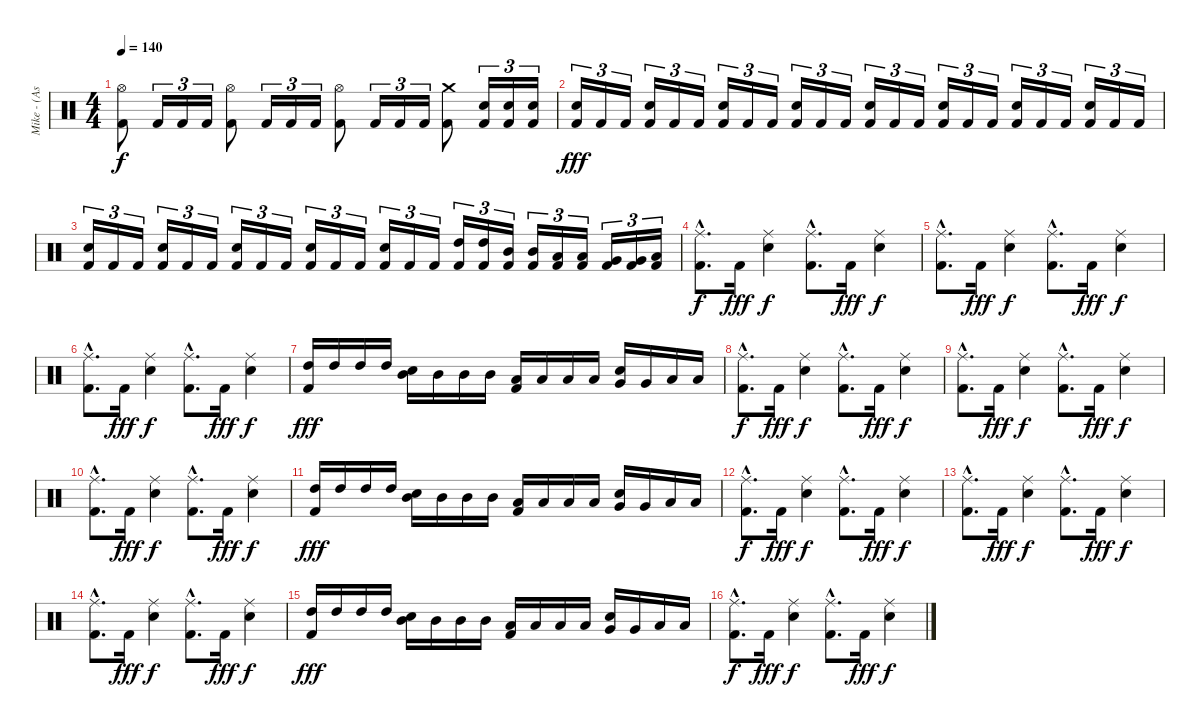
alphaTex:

\track ("Mike - (Assault and Battery)" "Mike - (As") {instrument percussion}
\staff {score}
\articulation defaults
\ts (4 4)
\tempo 140
\clef neutral
\ks c
("Hi-Hat (open)" "Kick (hit) 2").8{dy f} "Kick (hit) 2".16{tu (3 2)} "Kick (hit) 2".16{tu (3 2)} "Kick (hit) 2".16{tu (3 2)} ("Hi-Hat (open)" "Kick (hit) 2").8 "Kick (hit) 2".16{tu (3 2)} "Kick (hit) 2".16{tu (3 2)} "Kick (hit) 2".16{tu (3 2)} ("Hi-Hat (open)" "Kick (hit) 2").8 "Kick (hit) 2".16{tu (3 2)} "Kick (hit) 2".16{tu (3 2)} "Kick (hit) 2".16{tu (3 2)} ("Crash medium (hit)" "Kick (hit) 2").8 ("Electric Snare (hit)" "Kick (hit) 2").16{tu (3 2)} ("Electric Snare (hit)" "Kick (hit) 2").16{tu (3 2)} ("Electric Snare (hit)" "Kick (hit) 2").16{tu (3 2)} |
("Electric Snare (hit)" "Kick (hit) 2").16{tu (3 2) dy fff} "Kick (hit) 2".16{tu (3 2)} "Kick (hit) 2".16{tu (3 2)} ("Electric Snare (hit)" "Kick (hit) 2").16{tu (3 2)} "Kick (hit) 2".16{tu (3 2)} "Kick (hit) 2".16{tu (3 2)} ("Electric Snare (hit)" "Kick (hit) 2").16{tu (3 2)} "Kick (hit) 2".16{tu (3 2)} "Kick (hit) 2".16{tu (3 2)} ("Electric Snare (hit)" "Kick (hit) 2").16{tu (3 2)} "Kick (hit) 2".16{tu (3 2)} "Kick (hit) 2".16{tu (3 2)} ("Electric Snare (hit)" "Kick (hit) 2").16{tu (3 2)} "Kick (hit) 2".16{tu (3 2)} "Kick (hit) 2".16{tu (3 2)} ("Electric Snare (hit)" "Kick (hit) 2").16{tu (3 2)} "Kick (hit) 2".16{tu (3 2)} "Kick (hit) 2".16{tu (3 2)} ("Electric Snare (hit)" "Kick (hit) 2").16{tu (3 2)} "Kick (hit) 2".16{tu (3 2)} "Kick (hit) 2".16{tu (3 2)} ("Electric Snare (hit)" "Kick (hit) 2").16{tu (3 2)} "Kick (hit) 2".16{tu (3 2)} "Kick (hit) 2".16{tu (3 2)} |
("Electric Snare (hit)" "Kick (hit) 2").16{tu (3 2)} "Kick (hit) 2".16{tu (3 2)} "Kick (hit) 2".16{tu (3 2)} ("Electric Snare (hit)" "Kick (hit) 2").16{tu (3 2)} "Kick (hit) 2".16{tu (3 2)} "Kick (hit) 2".16{tu (3 2)} ("Electric Snare (hit)" "Kick (hit) 2").16{tu (3 2)} "Kick (hit) 2".16{tu (3 2)} "Kick (hit) 2".16{tu (3 2)} ("Electric Snare (hit)" "Kick (hit) 2").16{tu (3 2)} "Kick (hit) 2".16{tu (3 2)} "Kick (hit) 2".16{tu (3 2)} ("Electric Snare (hit)" "Kick (hit) 2").16{tu (3 2)} "Kick (hit) 2".16{tu (3 2)} "Kick (hit) 2".16{tu (3 2)} ("High Tom (hit)" "Kick (hit) 2").16{tu (3 2)} ("High Tom (hit)" "Kick (hit) 2").16{tu (3 2)} ("Mid Tom (hit)" "Kick (hit) 2").16{tu (3 2)} ("Mid Tom (hit)" "Kick (hit) 2").16{tu (3 2)} ("Low Tom (hit)" "Kick (hit) 2").16{tu (3 2)} ("Low Tom (hit)" "Kick (hit) 2").16{tu (3 2)} ("Very Low Tom (hit)" "Kick (hit) 2").16{tu (3 2)} ("Very Low Tom (hit)" "Kick (hit) 2").16{tu (3 2)} ("Low Floor Tom (hit)" "Kick (hit) 2").16{tu (3 2)} |
("Ride (middle)"{hac} "Kick (hit) 2"{hac}).8{d dy f} "Kick (hit) 2".16{dy fff} ("Ride (middle)" "Snare (hit) 2").4{dy f} ("Ride (middle)"{hac} "Kick (hit) 2"{hac}).8{d} "Kick (hit) 2".16{dy fff} ("Ride (middle)" "Snare (hit) 2").4{dy f} |
("Ride (middle)"{hac} "Kick (hit) 2"{hac}).8{d} "Kick (hit) 2".16{dy fff} ("Ride (middle)" "Snare (hit) 2").4{dy f} ("Ride (middle)"{hac} "Kick (hit) 2"{hac}).8{d} "Kick (hit) 2".16{dy fff} ("Ride (middle)" "Snare (hit) 2").4{dy f} |
("Ride (middle)"{hac} "Kick (hit) 2"{hac}).8{d} "Kick (hit) 2".16{dy fff} ("Ride (middle)" "Snare (hit) 2").4{dy f} ("Ride (middle)"{hac} "Kick (hit) 2"{hac}).8{d} "Kick (hit) 2".16{dy fff} ("Ride (middle)" "Snare (hit) 2").4{dy f} |
("High Tom (hit)" "Kick (hit) 2").16{dy fff} "High Tom (hit)".16 "High Tom (hit)".16 "High Tom (hit)".16 ("Mid Tom (hit)" "Snare (hit) 2").16 "Mid Tom (hit)".16 "Mid Tom (hit)".16 "Mid Tom (hit)".16 ("Low Tom (hit)" "Kick (hit) 2").16 "Low Tom (hit)".16 "Low Tom (hit)".16 "Low Tom (hit)".16 ("Very Low Tom (hit)" "Snare (hit) 2").16 "Very Low Tom (hit)".16 "Low Floor Tom (hit)".16 "Low Floor Tom (hit)".16 |
("Ride (middle)"{hac} "Kick (hit) 2"{hac}).8{d dy f} "Kick (hit) 2".16{dy fff} ("Ride (middle)" "Snare (hit) 2").4{dy f} ("Ride (middle)"{hac} "Kick (hit) 2"{hac}).8{d} "Kick (hit) 2".16{dy fff} ("Ride (middle)" "Snare (hit) 2").4{dy f} |
("Ride (middle)"{hac} "Kick (hit) 2"{hac}).8{d} "Kick (hit) 2".16{dy fff} ("Ride (middle)" "Snare (hit) 2").4{dy f} ("Ride (middle)"{hac} "Kick (hit) 2"{hac}).8{d} "Kick (hit) 2".16{dy fff} ("Ride (middle)" "Snare (hit) 2").4{dy f} |
("Ride (middle)"{hac} "Kick (hit) 2"{hac}).8{d} "Kick (hit) 2".16{dy fff} ("Ride (middle)" "Snare (hit) 2").4{dy f} ("Ride (middle)"{hac} "Kick (hit) 2"{hac}).8{d} "Kick (hit) 2".16{dy fff} ("Ride (middle)" "Snare (hit) 2").4{dy f} |
("High Tom (hit)" "Kick (hit) 2").16{dy fff} "High Tom (hit)".16 "High Tom (hit)".16 "High Tom (hit)".16 ("Mid Tom (hit)" "Snare (hit) 2").16 "Mid Tom (hit)".16 "Mid Tom (hit)".16 "Mid Tom (hit)".16 ("Low Tom (hit)" "Kick (hit) 2").16 "Low Tom (hit)".16 "Low Tom (hit)".16 "Low Tom (hit)".16 ("Very Low Tom (hit)" "Snare (hit) 2").16 "Very Low Tom (hit)".16 "Low Floor Tom (hit)".16 "Low Floor Tom (hit)".16 |
("Ride (middle)"{hac} "Kick (hit) 2"{hac}).8{d dy f} "Kick (hit) 2".16{dy fff} ("Ride (middle)" "Snare (hit) 2").4{dy f} ("Ride (middle)"{hac} "Kick (hit) 2"{hac}).8{d} "Kick (hit) 2".16{dy fff} ("Ride (middle)" "Snare (hit) 2").4{dy f} |
("Ride (middle)"{hac} "Kick (hit) 2"{hac}).8{d} "Kick (hit) 2".16{dy fff} ("Ride (middle)" "Snare (hit) 2").4{dy f} ("Ride (middle)"{hac} "Kick (hit) 2"{hac}).8{d} "Kick (hit) 2".16{dy fff} ("Ride (middle)" "Snare (hit) 2").4{dy f} |
("Ride (middle)"{hac} "Kick (hit) 2"{hac}).8{d} "Kick (hit) 2".16{dy fff} ("Ride (middle)" "Snare (hit) 2").4{dy f} ("Ride (middle)"{hac} "Kick (hit) 2"{hac}).8{d} "Kick (hit) 2".16{dy fff} ("Ride (middle)" "Snare (hit) 2").4{dy f} |
("High Tom (hit)" "Kick (hit) 2").16{dy fff} "High Tom (hit)".16 "High Tom (hit)".16 "High Tom (hit)".16 ("Mid Tom (hit)" "Snare (hit) 2").16 "Mid Tom (hit)".16 "Mid Tom (hit)".16 "Mid Tom (hit)".16 ("Low Tom (hit)" "Kick (hit) 2").16 "Low Tom (hit)".16 "Low Tom (hit)".16 "Low Tom (hit)".16 ("Very Low Tom (hit)" "Snare (hit) 2").16 "Very Low Tom (hit)".16 "Low Floor Tom (hit)".16 "Low Floor Tom (hit)".16 |
("Ride (middle)"{hac} "Kick (hit) 2"{hac}).8{d dy f} "Kick (hit) 2".16{dy fff} ("Ride (middle)" "Snare (hit) 2").4{dy f} ("Ride (middle)"{hac} "Kick (hit) 2"{hac}).8{d} "Kick (hit) 2".16{dy fff} ("Ride (middle)" "Snare (hit) 2").4{dy f}
